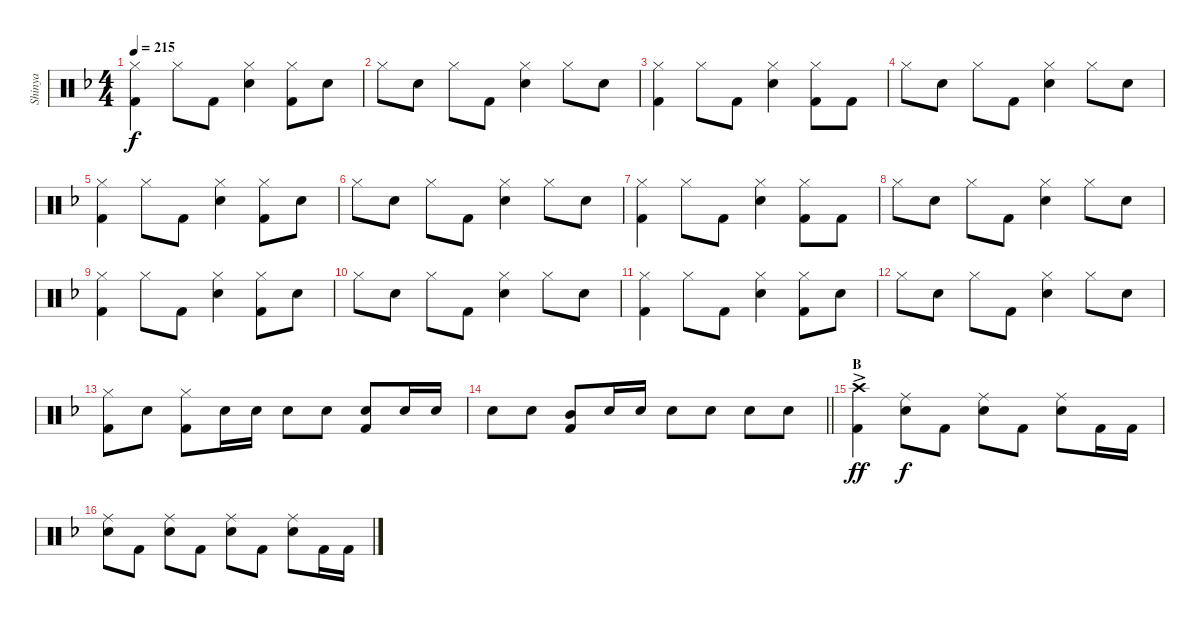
\track ("Shinya" "Shinya") {instrument percussion}
\staff {score}
\articulation defaults
\ts (4 4)
\tempo 215
\clef neutral
\ks f
("Hi-Hat (closed)" "Kick (hit) 2").4{dy f} "Hi-Hat (closed)".8 "Kick (hit) 2".8 ("Hi-Hat (closed)" "Snare (hit) 2").4 ("Hi-Hat (closed)" "Kick (hit) 2").8 "Snare (hit) 2".8 |
"Hi-Hat (closed)".8 "Snare (hit) 2".8 "Hi-Hat (closed)".8 "Kick (hit) 2".8 ("Hi-Hat (closed)" "Snare (hit) 2").4 "Hi-Hat (closed)".8 "Snare (hit) 2".8 |
("Hi-Hat (closed)" "Kick (hit) 2").4 "Hi-Hat (closed)".8 "Kick (hit) 2".8 ("Hi-Hat (closed)" "Snare (hit) 2").4 ("Hi-Hat (closed)" "Kick (hit) 2").8 "Kick (hit) 2".8 |
"Hi-Hat (closed)".8 "Snare (hit) 2".8 "Hi-Hat (closed)".8 "Kick (hit) 2".8 ("Hi-Hat (closed)" "Snare (hit) 2").4 "Hi-Hat (closed)".8 "Snare (hit) 2".8 |
("Hi-Hat (closed)" "Kick (hit) 2").4 "Hi-Hat (closed)".8 "Kick (hit) 2".8 ("Hi-Hat (closed)" "Snare (hit) 2").4 ("Hi-Hat (closed)" "Kick (hit) 2").8 "Snare (hit) 2".8 |
"Hi-Hat (closed)".8 "Snare (hit) 2".8 "Hi-Hat (closed)".8 "Kick (hit) 2".8 ("Hi-Hat (closed)" "Snare (hit) 2").4 "Hi-Hat (closed)".8 "Snare (hit) 2".8 |
("Hi-Hat (closed)" "Kick (hit) 2").4 "Hi-Hat (closed)".8 "Kick (hit) 2".8 ("Hi-Hat (closed)" "Snare (hit) 2").4 ("Hi-Hat (closed)" "Kick (hit) 2").8 "Kick (hit) 2".8 |
"Hi-Hat (closed)".8 "Snare (hit) 2".8 "Hi-Hat (closed)".8 "Kick (hit) 2".8 ("Hi-Hat (closed)" "Snare (hit) 2").4 "Hi-Hat (closed)".8 "Snare (hit) 2".8 |
("Hi-Hat (closed)" "Kick (hit) 2").4 "Hi-Hat (closed)".8 "Kick (hit) 2".8 ("Hi-Hat (closed)" "Snare (hit) 2").4 ("Hi-Hat (closed)" "Kick (hit) 2").8 "Snare (hit) 2".8 |
"Hi-Hat (closed)".8 "Snare (hit) 2".8 "Hi-Hat (closed)".8 "Kick (hit) 2".8 ("Hi-Hat (closed)" "Snare (hit) 2").4 "Hi-Hat (closed)".8 "Snare (hit) 2".8 |
("Hi-Hat (closed)" "Kick (hit) 2").4 "Hi-Hat (closed)".8 "Kick (hit) 2".8 ("Hi-Hat (closed)" "Snare (hit) 2").4 ("Hi-Hat (closed)" "Kick (hit) 2").8 "Snare (hit) 2".8 |
"Hi-Hat (closed)".8 "Snare (hit) 2".8 "Hi-Hat (closed)".8 "Kick (hit) 2".8 ("Hi-Hat (closed)" "Snare (hit) 2").4 "Hi-Hat (closed)".8 "Snare (hit) 2".8 |
("Hi-Hat (closed)" "Kick (hit) 2").8 "Snare (hit) 2".8 ("Hi-Hat (closed)" "Kick (hit) 2").8 "Snare (hit) 2".16 "Snare (hit) 2".16 "Snare (hit) 2".8 "Snare (hit) 2".8 ("Snare (hit) 2" "Kick (hit) 2").8 "Snare (hit) 2".16 "Snare (hit) 2".16 |
\barLineRight lightlight "Snare (hit) 2".8 "Snare (hit) 2".8
("Mid Tom (hit)" "Kick (hit) 2").8 "Snare (hit) 2".16 "Snare (hit) 2".16 "Snare (hit) 2".8 "Snare (hit) 2".8 "Snare (hit) 2".8 "Snare (hit) 2".8 |
\section ("" "B")
("Crash high (hit)"{ac} "Kick (hit) 2").4{dy ff} ("Ride (middle)" "Snare (hit) 2").8{dy f} "Kick (hit) 2".8 ("Ride (middle)" "Snare (hit) 2").8 "Kick (hit) 2".8 ("Ride (middle)" "Snare (hit) 2").8 "Kick (hit) 2".16 "Kick (hit) 2".16 |
("Ride (middle)" "Snare (hit) 2").8 "Kick (hit) 2".8 ("Ride (middle)" "Snare (hit) 2").8 "Kick (hit) 2".8 ("Ride (middle)" "Snare (hit) 2").8 "Kick (hit) 2".8 ("Ride (middle)" "Snare (hit) 2").8 "Kick (hit) 2".16 "Kick (hit) 2".16
